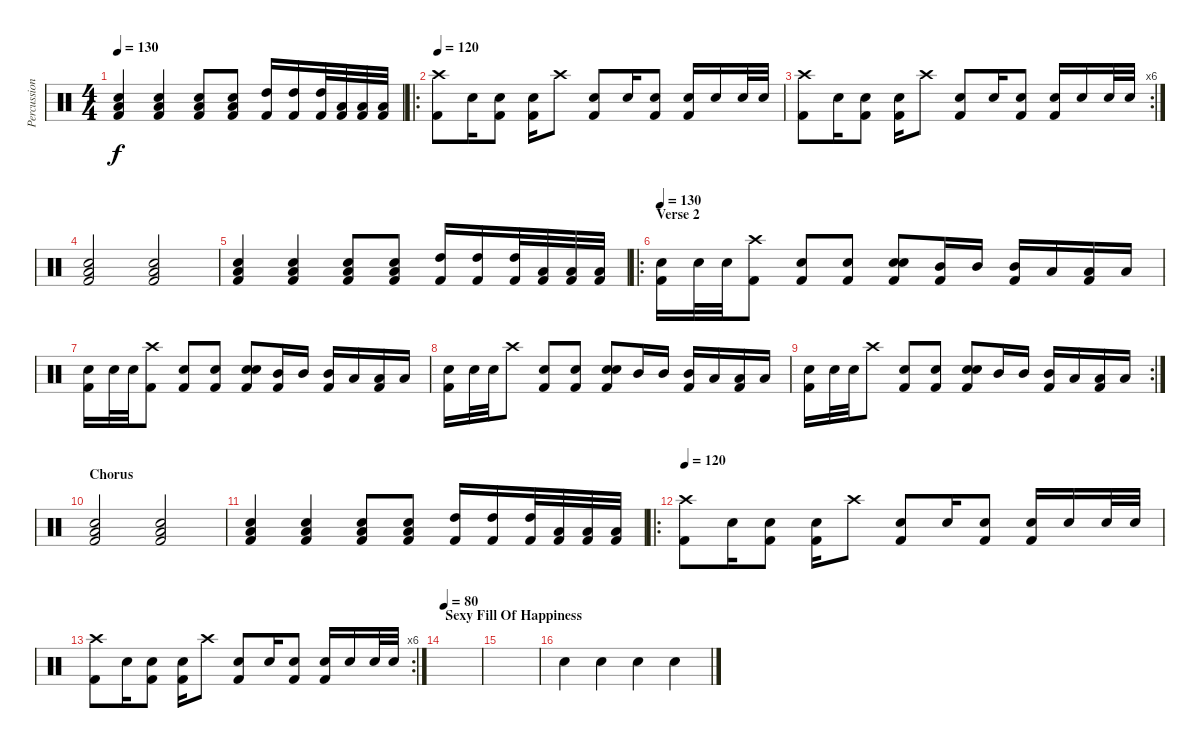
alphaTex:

\track ("Percussion" "Percussion") {instrument percussion}
\staff {score}
\articulation defaults
\ts (4 4)
\tempo 130
\clef neutral
\ks c
("Low Tom (hit)" "Electric Snare (hit)" "Kick (hit) 2").4{dy f} ("Low Tom (hit)" "Electric Snare (hit)" "Kick (hit) 2").4 ("Low Tom (hit)" "Electric Snare (hit)" "Kick (hit) 2").8 ("Low Tom (hit)" "Electric Snare (hit)" "Kick (hit) 2").8 ("High Tom (hit)" "Kick (hit) 2").16 ("High Tom (hit)" "Kick (hit) 2").16 ("High Tom (hit)" "Kick (hit) 2").32 ("Low Tom (hit)" "Kick (hit) 2").32 ("Low Tom (hit)" "Kick (hit) 2").32 ("Low Tom (hit)" "Kick (hit) 2").32 |
\ro
\tempo 120
("Crash high (hit)" "Kick (hit) 2").8 "Electric Snare (hit)".16 ("Electric Snare (hit)" "Kick (hit) 2").8 ("Electric Snare (hit)" "Kick (hit) 2").16 "Crash high (hit)".8 ("Electric Snare (hit)" "Kick (hit) 2").8 "Electric Snare (hit)".16 ("Electric Snare (hit)" "Kick (hit) 2").8 ("Electric Snare (hit)" "Kick (hit) 2").16 "Electric Snare (hit)".16 "Electric Snare (hit)".32 "Electric Snare (hit)".32 |
\rc 6
("Crash high (hit)" "Kick (hit) 2").8 "Electric Snare (hit)".16 ("Electric Snare (hit)" "Kick (hit) 2").8 ("Electric Snare (hit)" "Kick (hit) 2").16 "Crash high (hit)".8 ("Electric Snare (hit)" "Kick (hit) 2").8 "Electric Snare (hit)".16 ("Electric Snare (hit)" "Kick (hit) 2").8 ("Electric Snare (hit)" "Kick (hit) 2").16 "Electric Snare (hit)".16 "Electric Snare (hit)".32 "Electric Snare (hit)".32 |
("Low Tom (hit)" "Electric Snare (hit)" "Kick (hit) 2").2 ("Low Tom (hit)" "Electric Snare (hit)" "Kick (hit) 2").2 |
("Low Tom (hit)" "Electric Snare (hit)" "Kick (hit) 2").4 ("Low Tom (hit)" "Electric Snare (hit)" "Kick (hit) 2").4 ("Low Tom (hit)" "Electric Snare (hit)" "Kick (hit) 2").8 ("Low Tom (hit)" "Electric Snare (hit)" "Kick (hit) 2").8 ("High Tom (hit)" "Kick (hit) 2").16 ("High Tom (hit)" "Kick (hit) 2").16 ("High Tom (hit)" "Kick (hit) 2").32 ("Low Tom (hit)" "Kick (hit) 2").32 ("Low Tom (hit)" "Kick (hit) 2").32 ("Low Tom (hit)" "Kick (hit) 2").32 |
\ro
\section ("" "Verse 2")
\tempo 130
("Electric Snare (hit)" "Kick (hit) 2").16 "Electric Snare (hit)".32 "Electric Snare (hit)".32 ("Crash high (hit)" "Kick (hit) 2").8 ("Electric Snare (hit)" "Kick (hit) 2").8 ("Electric Snare (hit)" "Kick (hit) 2").8 ("Electric Snare (hit)" "Electric Snare (hit)" "Kick (hit) 2").8 ("Mid Tom (hit)" "Kick (hit) 2").16 "Mid Tom (hit)".16 ("Mid Tom (hit)" "Kick (hit) 2").16 "Low Tom (hit)".16 ("Low Tom (hit)" "Kick (hit) 2").16 "Low Tom (hit)".16 |
("Electric Snare (hit)" "Kick (hit) 2").16 "Electric Snare (hit)".32 "Electric Snare (hit)".32 ("Crash high (hit)" "Kick (hit) 2").8 ("Electric Snare (hit)" "Kick (hit) 2").8 ("Electric Snare (hit)" "Kick (hit) 2").8 ("Electric Snare (hit)" "Electric Snare (hit)" "Kick (hit) 2").8 ("Mid Tom (hit)" "Kick (hit) 2").16 "Mid Tom (hit)".16 ("Mid Tom (hit)" "Kick (hit) 2").16 "Low Tom (hit)".16 ("Low Tom (hit)" "Kick (hit) 2").16 "Low Tom (hit)".16 |
("Electric Snare (hit)" "Kick (hit) 2").16 "Electric Snare (hit)".32 "Electric Snare (hit)".32 "Crash high (hit)".8 ("Electric Snare (hit)" "Kick (hit) 2").8 ("Electric Snare (hit)" "Kick (hit) 2").8 ("Electric Snare (hit)" "Electric Snare (hit)" "Kick (hit) 2").8 "Mid Tom (hit)".16 "Mid Tom (hit)".16 ("Mid Tom (hit)" "Kick (hit) 2").16 "Low Tom (hit)".16 ("Low Tom (hit)" "Kick (hit) 2").16 "Low Tom (hit)".16 |
\rc 2
("Electric Snare (hit)" "Kick (hit) 2").16 "Electric Snare (hit)".32 "Electric Snare (hit)".32 "Crash high (hit)".8 ("Electric Snare (hit)" "Kick (hit) 2").8 ("Electric Snare (hit)" "Kick (hit) 2").8 ("Electric Snare (hit)" "Electric Snare (hit)" "Kick (hit) 2").8 "Mid Tom (hit)".16 "Mid Tom (hit)".16 ("Mid Tom (hit)" "Kick (hit) 2").16 "Low Tom (hit)".16 ("Low Tom (hit)" "Kick (hit) 2").16 "Low Tom (hit)".16 |
\section ("" "Chorus")
("Low Tom (hit)" "Electric Snare (hit)" "Kick (hit) 2").2 ("Low Tom (hit)" "Electric Snare (hit)" "Kick (hit) 2").2 |
("Low Tom (hit)" "Electric Snare (hit)" "Kick (hit) 2").4 ("Low Tom (hit)" "Electric Snare (hit)" "Kick (hit) 2").4 ("Low Tom (hit)" "Electric Snare (hit)" "Kick (hit) 2").8 ("Low Tom (hit)" "Electric Snare (hit)" "Kick (hit) 2").8 ("High Tom (hit)" "Kick (hit) 2").16 ("High Tom (hit)" "Kick (hit) 2").16 ("High Tom (hit)" "Kick (hit) 2").32 ("Low Tom (hit)" "Kick (hit) 2").32 ("Low Tom (hit)" "Kick (hit) 2").32 ("Low Tom (hit)" "Kick (hit) 2").32 |
\ro
\tempo 120
("Crash high (hit)" "Kick (hit) 2").8 "Electric Snare (hit)".16 ("Electric Snare (hit)" "Kick (hit) 2").8 ("Electric Snare (hit)" "Kick (hit) 2").16 "Crash high (hit)".8 ("Electric Snare (hit)" "Kick (hit) 2").8 "Electric Snare (hit)".16 ("Electric Snare (hit)" "Kick (hit) 2").8 ("Electric Snare (hit)" "Kick (hit) 2").16 "Electric Snare (hit)".16 "Electric Snare (hit)".32 "Electric Snare (hit)".32 |
\rc 6
("Crash high (hit)" "Kick (hit) 2").8 "Electric Snare (hit)".16 ("Electric Snare (hit)" "Kick (hit) 2").8 ("Electric Snare (hit)" "Kick (hit) 2").16 "Crash high (hit)".8 ("Electric Snare (hit)" "Kick (hit) 2").8 "Electric Snare (hit)".16 ("Electric Snare (hit)" "Kick (hit) 2").8 ("Electric Snare (hit)" "Kick (hit) 2").16 "Electric Snare (hit)".16 "Electric Snare (hit)".32 "Electric Snare (hit)".32 |
\section ("" "Sexy Fill Of Happiness")
\tempo 80
|
|
"Hand Clap (hit)".4 "Hand Clap (hit)".4 "Hand Clap (hit)".4 "Hand Clap (hit)".4
